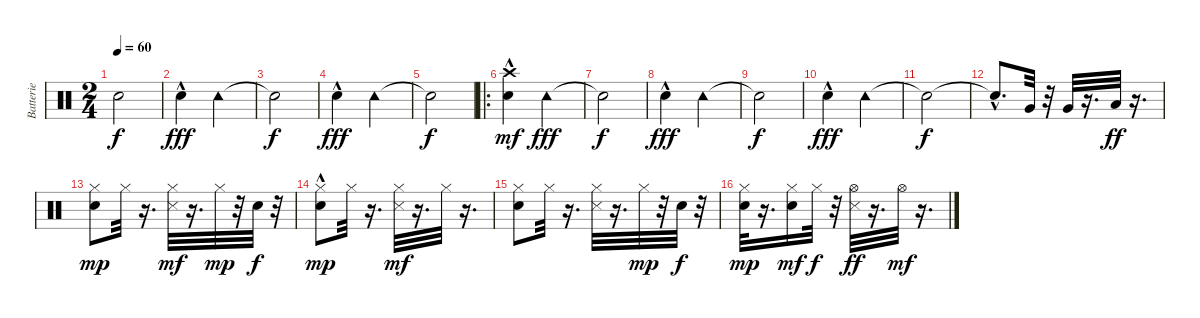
\track ("Batterie" "Batterie") {instrument percussion}
\staff {score}
\articulation defaults
\ts (2 4)
\tempo 60
\clef neutral
\ks c "Snare (hit)"{t}.2{dy f}
|
"Snare (hit)"{hac}.4{dy fff} "Tambourine (hit)".4 |
"Snare (hit)"{t}.2{dy f} |
"Snare (hit)"{hac}.4{dy fff} "Tambourine (hit)".4 |
"Snare (hit)"{t}.2{dy f} |
\ro
("Snare (hit)"{hac} "Crash high (hit)").4{dy mf} "Tambourine (hit)".4{dy fff} |
"Snare (hit)"{t}.2{dy f} |
"Snare (hit)"{hac}.4{dy fff} "Tambourine (hit)".4 |
"Snare (hit)"{t}.2{dy f} |
"Snare (hit)"{hac}.4{dy fff} "Tambourine (hit)".4 |
"Snare (hit)"{t}.2{dy f} |
"Snare (hit)"{hac t}.8{d} "Very Low Tom (hit)".32 r.32 "Very Low Tom (hit)".32 r.16{d} "Low Floor Tom (hit)".32{dy ff} r.16{d} |
("Snare (hit)" "Hi-Hat (closed)").8{dy mp} "Hi-Hat (closed)".32 r.16{d} ("Hi-Hat (closed)" "Snare (side stick) 3").32{dy mf} r.16{d} "Hi-Hat (closed)".32{dy mp} r.32 "Snare (hit)".32{dy f} r.32 |
("Snare (hit)"{hac} "Hi-Hat (closed)").8{dy mp} "Hi-Hat (closed)".32 r.16{d} ("Snare (side stick) 3" "Hi-Hat (closed)").32{dy mf} r.16{d} "Hi-Hat (closed)".32 r.16{d} |
("Snare (hit)" "Hi-Hat (closed)").8 "Hi-Hat (closed)".32 r.16{d} ("Snare (side stick) 3" "Hi-Hat (closed)").32 r.16{d} "Hi-Hat (closed)".32{dy mp} r.32 "Snare (hit)".32{dy f} r.32 |
("Snare (hit)" "Hi-Hat (closed)").32{dy mp} r.16{d} ("Snare (hit)" "Hi-Hat (closed)").16{dy mf} "Hi-Hat (closed)".32{dy f} r.32 ("Snare (side stick) 3" "Hi-Hat (open)").32{dy ff} r.16{d} "Hi-Hat (open)".32{dy mf} r.16{d}
